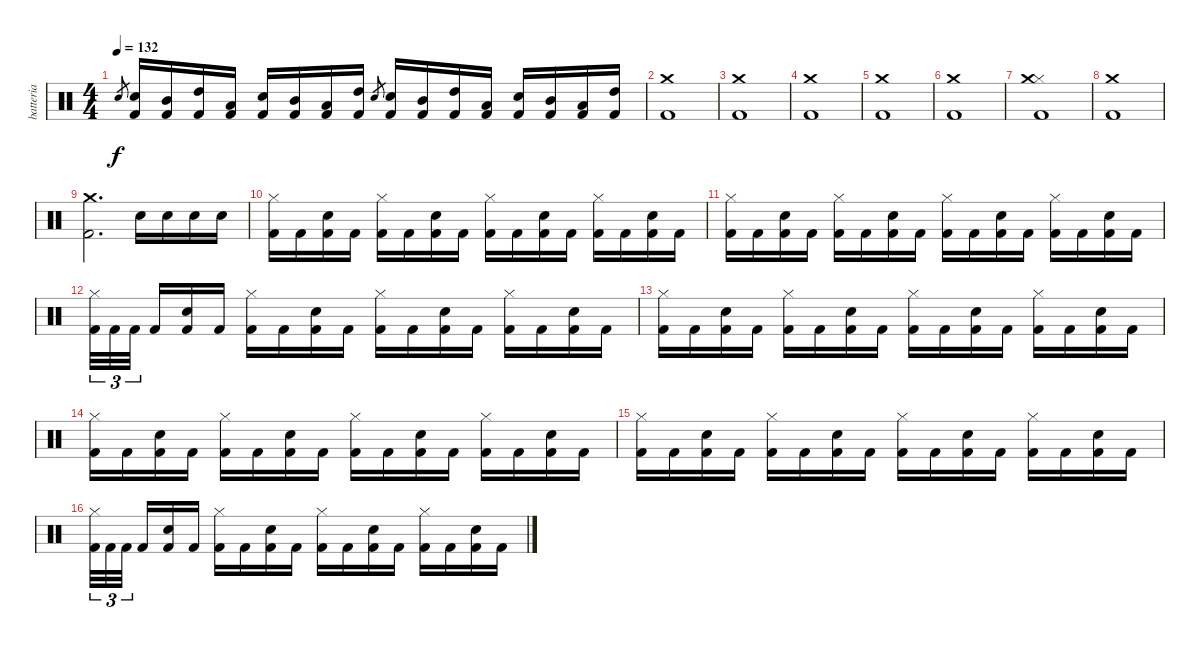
\track ("batteria" "batteria") {instrument percussion}
\staff {score}
\articulation defaults
\ts (4 4)
\tempo 132
\clef neutral
\ks c "Snare (hit) 2".8{gr dy f}
("Snare (hit) 2" "Kick (hit) 2").16 ("Kick (hit) 2" "Mid Tom (hit)").16 ("Kick (hit) 2" "High Tom (hit)").16 ("Kick (hit) 2" "Low Tom (hit)").16 ("Snare (hit) 2" "Kick (hit) 2").16 ("Kick (hit) 2" "Mid Tom (hit)").16 ("Kick (hit) 2" "Low Tom (hit)").16 ("Kick (hit) 2" "High Tom (hit)").16 "Snare (hit) 2".8{gr} ("Snare (hit) 2" "Kick (hit) 2").16 ("Kick (hit) 2" "Mid Tom (hit)").16 ("Kick (hit) 2" "High Tom (hit)").16 ("Kick (hit) 2" "Low Tom (hit)").16 ("Snare (hit) 2" "Kick (hit) 2").16 ("Kick (hit) 2" "Mid Tom (hit)").16 ("Kick (hit) 2" "Low Tom (hit)").16 ("Kick (hit) 2" "High Tom (hit)").16 |
("Kick (hit) 2" "Crash medium (hit)").1 |
("Kick (hit) 2" "Crash medium (hit)").1 |
("Kick (hit) 2" "Crash medium (hit)").1 |
("Kick (hit) 2" "Crash medium (hit)").1 |
("Kick (hit) 2" "Crash medium (hit)").1 |
("Kick (hit) 2" "Hi-Hat (closed)" "Crash medium (hit)").1 |
("Kick (hit) 2" "Crash medium (hit)").1 |
("Kick (hit) 2" "Crash medium (hit)").2{d} "Snare (hit) 2".16 "Snare (hit) 2".16 "Snare (hit) 2".16 "Snare (hit) 2".16 |
("Kick (hit) 2" "Hi-Hat (closed)").16 "Kick (hit) 2".16 ("Kick (hit) 2" "Snare (hit) 2").16 "Kick (hit) 2".16 ("Kick (hit) 2" "Hi-Hat (closed)").16 "Kick (hit) 2".16 ("Kick (hit) 2" "Snare (hit) 2").16 "Kick (hit) 2".16 ("Kick (hit) 2" "Hi-Hat (closed)").16 "Kick (hit) 2".16 ("Kick (hit) 2" "Snare (hit) 2").16 "Kick (hit) 2".16 ("Kick (hit) 2" "Hi-Hat (closed)").16 "Kick (hit) 2".16 ("Kick (hit) 2" "Snare (hit) 2").16 "Kick (hit) 2".16 |
("Kick (hit) 2" "Hi-Hat (closed)").16 "Kick (hit) 2".16 ("Kick (hit) 2" "Snare (hit) 2").16 "Kick (hit) 2".16 ("Kick (hit) 2" "Hi-Hat (closed)").16 "Kick (hit) 2".16 ("Kick (hit) 2" "Snare (hit) 2").16 "Kick (hit) 2".16 ("Kick (hit) 2" "Hi-Hat (closed)").16 "Kick (hit) 2".16 ("Kick (hit) 2" "Snare (hit) 2").16 "Kick (hit) 2".16 ("Kick (hit) 2" "Hi-Hat (closed)").16 "Kick (hit) 2".16 ("Kick (hit) 2" "Snare (hit) 2").16 "Kick (hit) 2".16 |
("Kick (hit) 2" "Hi-Hat (closed)").32{tu (3 2)} "Kick (hit) 2".32{tu (3 2)} "Kick (hit) 2".32{tu (3 2) beam splitsecondary} "Kick (hit) 2".16 ("Kick (hit) 2" "Snare (hit) 2").16 "Kick (hit) 2".16 ("Kick (hit) 2" "Hi-Hat (closed)").16 "Kick (hit) 2".16 ("Kick (hit) 2" "Snare (hit) 2").16 "Kick (hit) 2".16 ("Kick (hit) 2" "Hi-Hat (closed)").16 "Kick (hit) 2".16 ("Kick (hit) 2" "Snare (hit) 2").16 "Kick (hit) 2".16 ("Kick (hit) 2" "Hi-Hat (closed)").16 "Kick (hit) 2".16 ("Kick (hit) 2" "Snare (hit) 2").16 "Kick (hit) 2".16 |
("Kick (hit) 2" "Hi-Hat (closed)").16 "Kick (hit) 2".16 ("Kick (hit) 2" "Snare (hit) 2").16 "Kick (hit) 2".16 ("Kick (hit) 2" "Hi-Hat (closed)").16 "Kick (hit) 2".16 ("Kick (hit) 2" "Snare (hit) 2").16 "Kick (hit) 2".16 ("Kick (hit) 2" "Hi-Hat (closed)").16 "Kick (hit) 2".16 ("Kick (hit) 2" "Snare (hit) 2").16 "Kick (hit) 2".16 ("Kick (hit) 2" "Hi-Hat (closed)").16 "Kick (hit) 2".16 ("Kick (hit) 2" "Snare (hit) 2").16 "Kick (hit) 2".16 |
("Kick (hit) 2" "Hi-Hat (closed)").16 "Kick (hit) 2".16 ("Kick (hit) 2" "Snare (hit) 2").16 "Kick (hit) 2".16 ("Kick (hit) 2" "Hi-Hat (closed)").16 "Kick (hit) 2".16 ("Kick (hit) 2" "Snare (hit) 2").16 "Kick (hit) 2".16 ("Kick (hit) 2" "Hi-Hat (closed)").16 "Kick (hit) 2".16 ("Kick (hit) 2" "Snare (hit) 2").16 "Kick (hit) 2".16 ("Kick (hit) 2" "Hi-Hat (closed)").16 "Kick (hit) 2".16 ("Kick (hit) 2" "Snare (hit) 2").16 "Kick (hit) 2".16 |
("Kick (hit) 2" "Hi-Hat (closed)").16 "Kick (hit) 2".16 ("Kick (hit) 2" "Snare (hit) 2").16 "Kick (hit) 2".16 ("Kick (hit) 2" "Hi-Hat (closed)").16 "Kick (hit) 2".16 ("Kick (hit) 2" "Snare (hit) 2").16 "Kick (hit) 2".16 ("Kick (hit) 2" "Hi-Hat (closed)").16 "Kick (hit) 2".16 ("Kick (hit) 2" "Snare (hit) 2").16 "Kick (hit) 2".16 ("Kick (hit) 2" "Hi-Hat (closed)").16 "Kick (hit) 2".16 ("Kick (hit) 2" "Snare (hit) 2").16 "Kick (hit) 2".16 |
("Kick (hit) 2" "Hi-Hat (closed)").32{tu (3 2)} "Kick (hit) 2".32{tu (3 2)} "Kick (hit) 2".32{tu (3 2) beam splitsecondary} "Kick (hit) 2".16 ("Kick (hit) 2" "Snare (hit) 2").16 "Kick (hit) 2".16 ("Kick (hit) 2" "Hi-Hat (closed)").16 "Kick (hit) 2".16 ("Kick (hit) 2" "Snare (hit) 2").16 "Kick (hit) 2".16 ("Kick (hit) 2" "Hi-Hat (closed)").16 "Kick (hit) 2".16 ("Kick (hit) 2" "Snare (hit) 2").16 "Kick (hit) 2".16 ("Kick (hit) 2" "Hi-Hat (closed)").16 "Kick (hit) 2".16 ("Kick (hit) 2" "Snare (hit) 2").16 "Kick (hit) 2".16
